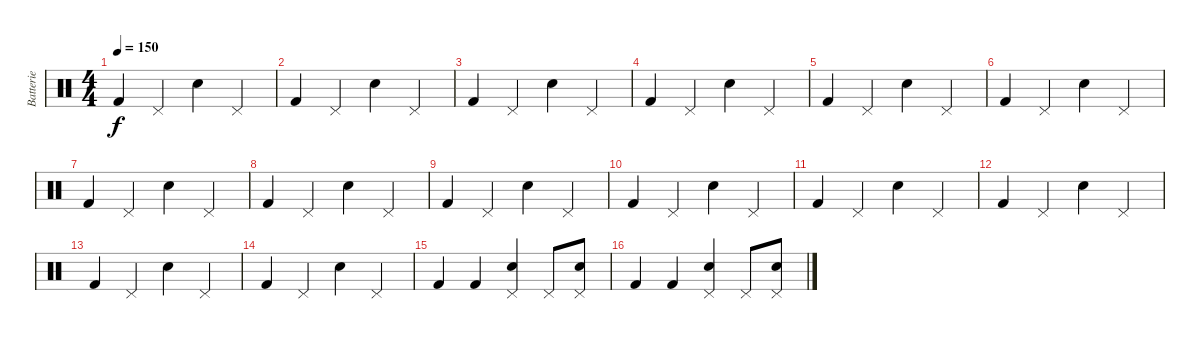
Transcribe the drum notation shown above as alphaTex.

\track ("Batterie" "Batterie") {instrument percussion}
\staff {score}
\articulation defaults
\ts (4 4)
\tempo 150
\clef neutral
\ks c "Kick (hit) 2".4{dy f} "Pedal Hi-Hat (hit)".4 "Electric Snare (hit)".4 "Pedal Hi-Hat (hit)".4
|
"Kick (hit) 2".4 "Pedal Hi-Hat (hit)".4 "Electric Snare (hit)".4 "Pedal Hi-Hat (hit)".4 |
"Kick (hit) 2".4 "Pedal Hi-Hat (hit)".4 "Electric Snare (hit)".4 "Pedal Hi-Hat (hit)".4 |
"Kick (hit) 2".4 "Pedal Hi-Hat (hit)".4 "Electric Snare (hit)".4 "Pedal Hi-Hat (hit)".4 |
"Kick (hit) 2".4 "Pedal Hi-Hat (hit)".4 "Electric Snare (hit)".4 "Pedal Hi-Hat (hit)".4 |
"Kick (hit) 2".4 "Pedal Hi-Hat (hit)".4 "Electric Snare (hit)".4 "Pedal Hi-Hat (hit)".4 |
"Kick (hit) 2".4 "Pedal Hi-Hat (hit)".4 "Electric Snare (hit)".4 "Pedal Hi-Hat (hit)".4 |
"Kick (hit) 2".4 "Pedal Hi-Hat (hit)".4 "Electric Snare (hit)".4 "Pedal Hi-Hat (hit)".4 |
"Kick (hit) 2".4 "Pedal Hi-Hat (hit)".4 "Electric Snare (hit)".4 "Pedal Hi-Hat (hit)".4 |
"Kick (hit) 2".4 "Pedal Hi-Hat (hit)".4 "Electric Snare (hit)".4 "Pedal Hi-Hat (hit)".4 |
"Kick (hit) 2".4 "Pedal Hi-Hat (hit)".4 "Electric Snare (hit)".4 "Pedal Hi-Hat (hit)".4 |
"Kick (hit) 2".4 "Pedal Hi-Hat (hit)".4 "Electric Snare (hit)".4 "Pedal Hi-Hat (hit)".4 |
"Kick (hit) 2".4 "Pedal Hi-Hat (hit)".4 "Electric Snare (hit)".4 "Pedal Hi-Hat (hit)".4 |
"Kick (hit) 2".4 "Pedal Hi-Hat (hit)".4 "Electric Snare (hit)".4 "Pedal Hi-Hat (hit)".4 |
"Kick (hit) 2".4 "Kick (hit) 2".4 ("Pedal Hi-Hat (hit)" "Electric Snare (hit)").4 "Pedal Hi-Hat (hit)".8 ("Pedal Hi-Hat (hit)" "Electric Snare (hit)").8 |
"Kick (hit) 2".4 "Kick (hit) 2".4 ("Pedal Hi-Hat (hit)" "Electric Snare (hit)").4 "Pedal Hi-Hat (hit)".8 ("Pedal Hi-Hat (hit)" "Electric Snare (hit)").8
